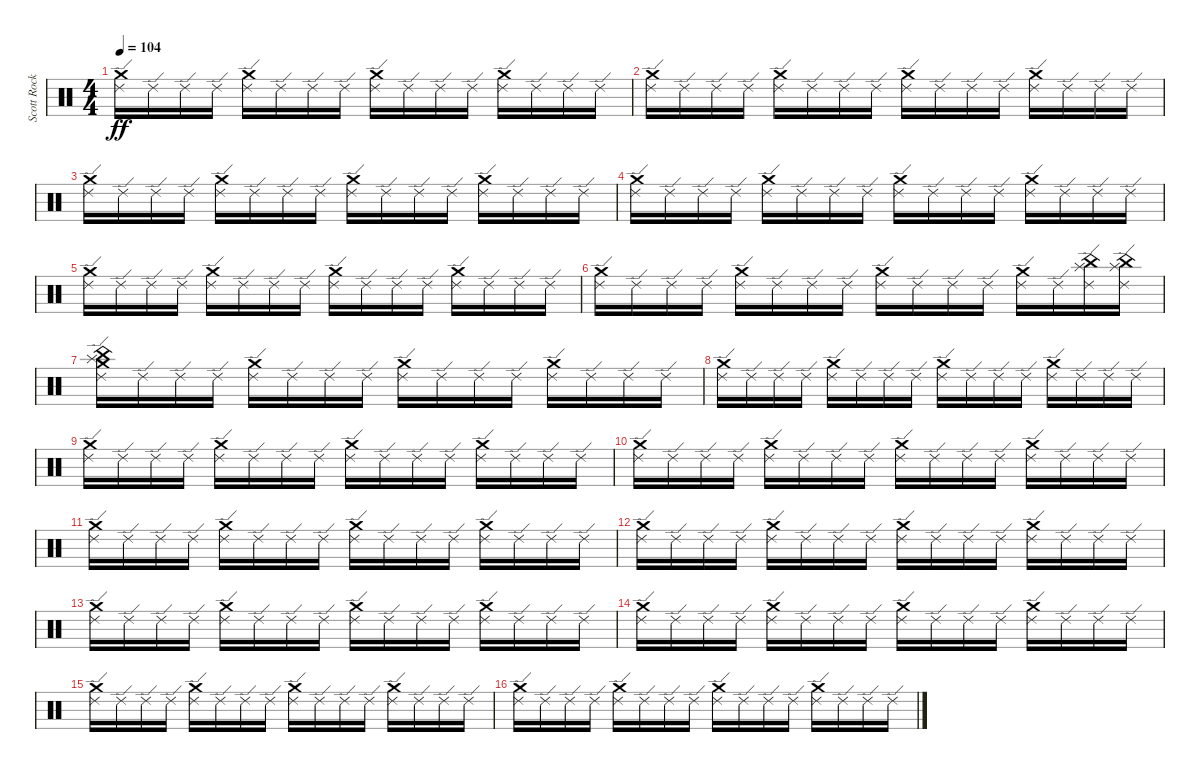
\track ("Scott Rockenfield" "Scott Rock") {instrument percussion}
\staff {score}
\articulation defaults
\ts (4 4)
\tempo 104
\clef neutral
\ks c
("Crash medium (hit)" "Ride (edge) 2").16{dy ff} "Ride (edge) 2".16 "Ride (edge) 2".16 "Ride (edge) 2".16 ("Crash medium (hit)" "Ride (edge) 2").16 "Ride (edge) 2".16 "Ride (edge) 2".16 "Ride (edge) 2".16 ("Crash medium (hit)" "Ride (edge) 2").16 "Ride (edge) 2".16 "Ride (edge) 2".16 "Ride (edge) 2".16 ("Crash medium (hit)" "Ride (edge) 2").16 "Ride (edge) 2".16 "Ride (edge) 2".16 "Ride (edge) 2".16 |
("Crash medium (hit)" "Ride (edge) 2").16 "Ride (edge) 2".16 "Ride (edge) 2".16 "Ride (edge) 2".16 ("Crash medium (hit)" "Ride (edge) 2").16 "Ride (edge) 2".16 "Ride (edge) 2".16 "Ride (edge) 2".16 ("Crash medium (hit)" "Ride (edge) 2").16 "Ride (edge) 2".16 "Ride (edge) 2".16 "Ride (edge) 2".16 ("Crash medium (hit)" "Ride (edge) 2").16 "Ride (edge) 2".16 "Ride (edge) 2".16 "Ride (edge) 2".16 |
("Crash medium (hit)" "Ride (edge) 2").16 "Ride (edge) 2".16 "Ride (edge) 2".16 "Ride (edge) 2".16 ("Crash medium (hit)" "Ride (edge) 2").16 "Ride (edge) 2".16 "Ride (edge) 2".16 "Ride (edge) 2".16 ("Crash medium (hit)" "Ride (edge) 2").16 "Ride (edge) 2".16 "Ride (edge) 2".16 "Ride (edge) 2".16 ("Crash medium (hit)" "Ride (edge) 2").16 "Ride (edge) 2".16 "Ride (edge) 2".16 "Ride (edge) 2".16 |
("Crash medium (hit)" "Ride (edge) 2").16 "Ride (edge) 2".16 "Ride (edge) 2".16 "Ride (edge) 2".16 ("Crash medium (hit)" "Ride (edge) 2").16 "Ride (edge) 2".16 "Ride (edge) 2".16 "Ride (edge) 2".16 ("Crash medium (hit)" "Ride (edge) 2").16 "Ride (edge) 2".16 "Ride (edge) 2".16 "Ride (edge) 2".16 ("Crash medium (hit)" "Ride (edge) 2").16 "Ride (edge) 2".16 "Ride (edge) 2".16 "Ride (edge) 2".16 |
("Crash medium (hit)" "Ride (edge) 2").16 "Ride (edge) 2".16 "Ride (edge) 2".16 "Ride (edge) 2".16 ("Crash medium (hit)" "Ride (edge) 2").16 "Ride (edge) 2".16 "Ride (edge) 2".16 "Ride (edge) 2".16 ("Crash medium (hit)" "Ride (edge) 2").16 "Ride (edge) 2".16 "Ride (edge) 2".16 "Ride (edge) 2".16 ("Crash medium (hit)" "Ride (edge) 2").16 "Ride (edge) 2".16 "Ride (edge) 2".16 "Ride (edge) 2".16 |
("Crash medium (hit)" "Ride (edge) 2").16 "Ride (edge) 2".16 "Ride (edge) 2".16 "Ride (edge) 2".16 ("Crash medium (hit)" "Ride (edge) 2").16 "Ride (edge) 2".16 "Ride (edge) 2".16 "Ride (edge) 2".16 ("Crash medium (hit)" "Ride (edge) 2").16 "Ride (edge) 2".16 "Ride (edge) 2".16 "Ride (edge) 2".16 ("Crash medium (hit)" "Ride (edge) 2").16 "Ride (edge) 2".16 ("China (hit)" "Splash (hit)" "Ride (edge) 2").16 ("China (hit)" "Splash (hit)" "Ride (edge) 2").16 |
("China (hit)" "Splash (hit)" "Crash medium (hit)" "Ride (edge) 2").16 "Ride (edge) 2".16 "Ride (edge) 2".16 "Ride (edge) 2".16 ("Crash medium (hit)" "Ride (edge) 2").16 "Ride (edge) 2".16 "Ride (edge) 2".16 "Ride (edge) 2".16 ("Crash medium (hit)" "Ride (edge) 2").16 "Ride (edge) 2".16 "Ride (edge) 2".16 "Ride (edge) 2".16 ("Crash medium (hit)" "Ride (edge) 2").16 "Ride (edge) 2".16 "Ride (edge) 2".16 "Ride (edge) 2".16 |
("Crash medium (hit)" "Ride (edge) 2").16 "Ride (edge) 2".16 "Ride (edge) 2".16 "Ride (edge) 2".16 ("Crash medium (hit)" "Ride (edge) 2").16 "Ride (edge) 2".16 "Ride (edge) 2".16 "Ride (edge) 2".16 ("Crash medium (hit)" "Ride (edge) 2").16 "Ride (edge) 2".16 "Ride (edge) 2".16 "Ride (edge) 2".16 ("Crash medium (hit)" "Ride (edge) 2").16 "Ride (edge) 2".16 "Ride (edge) 2".16 "Ride (edge) 2".16 |
("Crash medium (hit)" "Ride (edge) 2").16 "Ride (edge) 2".16 "Ride (edge) 2".16 "Ride (edge) 2".16 ("Crash medium (hit)" "Ride (edge) 2").16 "Ride (edge) 2".16 "Ride (edge) 2".16 "Ride (edge) 2".16 ("Crash medium (hit)" "Ride (edge) 2").16 "Ride (edge) 2".16 "Ride (edge) 2".16 "Ride (edge) 2".16 ("Crash medium (hit)" "Ride (edge) 2").16 "Ride (edge) 2".16 "Ride (edge) 2".16 "Ride (edge) 2".16 |
("Crash medium (hit)" "Ride (edge) 2").16 "Ride (edge) 2".16 "Ride (edge) 2".16 "Ride (edge) 2".16 ("Crash medium (hit)" "Ride (edge) 2").16 "Ride (edge) 2".16 "Ride (edge) 2".16 "Ride (edge) 2".16 ("Crash medium (hit)" "Ride (edge) 2").16 "Ride (edge) 2".16 "Ride (edge) 2".16 "Ride (edge) 2".16 ("Crash medium (hit)" "Ride (edge) 2").16 "Ride (edge) 2".16 "Ride (edge) 2".16 "Ride (edge) 2".16 |
("Crash medium (hit)" "Ride (edge) 2").16 "Ride (edge) 2".16 "Ride (edge) 2".16 "Ride (edge) 2".16 ("Crash medium (hit)" "Ride (edge) 2").16 "Ride (edge) 2".16 "Ride (edge) 2".16 "Ride (edge) 2".16 ("Crash medium (hit)" "Ride (edge) 2").16 "Ride (edge) 2".16 "Ride (edge) 2".16 "Ride (edge) 2".16 ("Crash medium (hit)" "Ride (edge) 2").16 "Ride (edge) 2".16 "Ride (edge) 2".16 "Ride (edge) 2".16 |
("Crash medium (hit)" "Ride (edge) 2").16 "Ride (edge) 2".16 "Ride (edge) 2".16 "Ride (edge) 2".16 ("Crash medium (hit)" "Ride (edge) 2").16 "Ride (edge) 2".16 "Ride (edge) 2".16 "Ride (edge) 2".16 ("Crash medium (hit)" "Ride (edge) 2").16 "Ride (edge) 2".16 "Ride (edge) 2".16 "Ride (edge) 2".16 ("Crash medium (hit)" "Ride (edge) 2").16 "Ride (edge) 2".16 "Ride (edge) 2".16 "Ride (edge) 2".16 |
("Crash medium (hit)" "Ride (edge) 2").16 "Ride (edge) 2".16 "Ride (edge) 2".16 "Ride (edge) 2".16 ("Crash medium (hit)" "Ride (edge) 2").16 "Ride (edge) 2".16 "Ride (edge) 2".16 "Ride (edge) 2".16 ("Crash medium (hit)" "Ride (edge) 2").16 "Ride (edge) 2".16 "Ride (edge) 2".16 "Ride (edge) 2".16 ("Crash medium (hit)" "Ride (edge) 2").16 "Ride (edge) 2".16 "Ride (edge) 2".16 "Ride (edge) 2".16 |
("Crash medium (hit)" "Ride (edge) 2").16 "Ride (edge) 2".16 "Ride (edge) 2".16 "Ride (edge) 2".16 ("Crash medium (hit)" "Ride (edge) 2").16 "Ride (edge) 2".16 "Ride (edge) 2".16 "Ride (edge) 2".16 ("Crash medium (hit)" "Ride (edge) 2").16 "Ride (edge) 2".16 "Ride (edge) 2".16 "Ride (edge) 2".16 ("Crash medium (hit)" "Ride (edge) 2").16 "Ride (edge) 2".16 "Ride (edge) 2".16 "Ride (edge) 2".16 |
("Crash medium (hit)" "Ride (edge) 2").16 "Ride (edge) 2".16 "Ride (edge) 2".16 "Ride (edge) 2".16 ("Crash medium (hit)" "Ride (edge) 2").16 "Ride (edge) 2".16 "Ride (edge) 2".16 "Ride (edge) 2".16 ("Crash medium (hit)" "Ride (edge) 2").16 "Ride (edge) 2".16 "Ride (edge) 2".16 "Ride (edge) 2".16 ("Crash medium (hit)" "Ride (edge) 2").16 "Ride (edge) 2".16 "Ride (edge) 2".16 "Ride (edge) 2".16 |
("Crash medium (hit)" "Ride (edge) 2").16 "Ride (edge) 2".16 "Ride (edge) 2".16 "Ride (edge) 2".16 ("Crash medium (hit)" "Ride (edge) 2").16 "Ride (edge) 2".16 "Ride (edge) 2".16 "Ride (edge) 2".16 ("Crash medium (hit)" "Ride (edge) 2").16 "Ride (edge) 2".16 "Ride (edge) 2".16 "Ride (edge) 2".16 ("Crash medium (hit)" "Ride (edge) 2").16 "Ride (edge) 2".16 "Ride (edge) 2".16 "Ride (edge) 2".16
